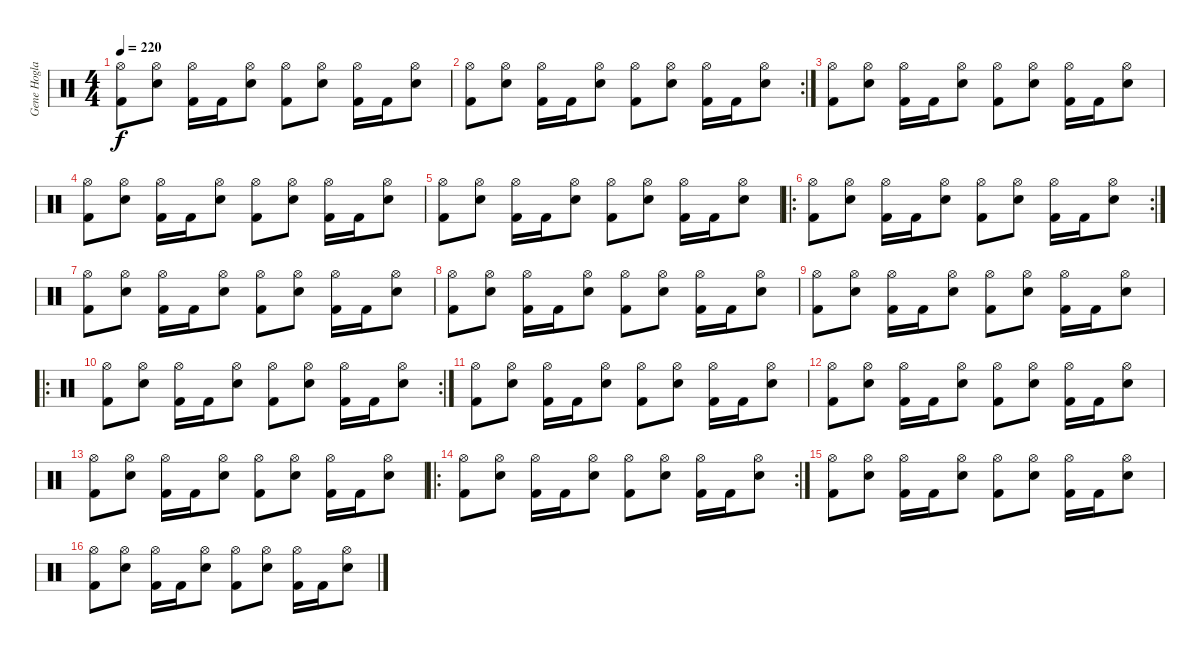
\track ("Gene Hoglan" "Gene Hogla") {instrument percussion}
\staff {score}
\articulation defaults
\ts (4 4)
\tempo 220
\clef neutral
\ks c
("Hi-Hat (open)" "Kick (hit) 2").8{dy f} ("Hi-Hat (open)" "Electric Snare (hit)").8 ("Hi-Hat (open)" "Kick (hit) 2").16 "Kick (hit) 2".16 ("Hi-Hat (open)" "Electric Snare (hit)").8 ("Hi-Hat (open)" "Kick (hit) 2").8 ("Hi-Hat (open)" "Electric Snare (hit)").8 ("Hi-Hat (open)" "Kick (hit) 2").16 "Kick (hit) 2".16 ("Hi-Hat (open)" "Electric Snare (hit)").8 |
\rc 2
("Hi-Hat (open)" "Kick (hit) 2").8 ("Hi-Hat (open)" "Electric Snare (hit)").8 ("Hi-Hat (open)" "Kick (hit) 2").16 "Kick (hit) 2".16 ("Hi-Hat (open)" "Electric Snare (hit)").8 ("Hi-Hat (open)" "Kick (hit) 2").8 ("Hi-Hat (open)" "Electric Snare (hit)").8 ("Hi-Hat (open)" "Kick (hit) 2").16 "Kick (hit) 2".16 ("Hi-Hat (open)" "Electric Snare (hit)").8 |
("Hi-Hat (open)" "Kick (hit) 2").8 ("Hi-Hat (open)" "Electric Snare (hit)").8 ("Hi-Hat (open)" "Kick (hit) 2").16 "Kick (hit) 2".16 ("Hi-Hat (open)" "Electric Snare (hit)").8 ("Hi-Hat (open)" "Kick (hit) 2").8 ("Hi-Hat (open)" "Electric Snare (hit)").8 ("Hi-Hat (open)" "Kick (hit) 2").16 "Kick (hit) 2".16 ("Hi-Hat (open)" "Electric Snare (hit)").8 |
("Hi-Hat (open)" "Kick (hit) 2").8 ("Hi-Hat (open)" "Electric Snare (hit)").8 ("Hi-Hat (open)" "Kick (hit) 2").16 "Kick (hit) 2".16 ("Hi-Hat (open)" "Electric Snare (hit)").8 ("Hi-Hat (open)" "Kick (hit) 2").8 ("Hi-Hat (open)" "Electric Snare (hit)").8 ("Hi-Hat (open)" "Kick (hit) 2").16 "Kick (hit) 2".16 ("Hi-Hat (open)" "Electric Snare (hit)").8 |
("Hi-Hat (open)" "Kick (hit) 2").8 ("Hi-Hat (open)" "Electric Snare (hit)").8 ("Hi-Hat (open)" "Kick (hit) 2").16 "Kick (hit) 2".16 ("Hi-Hat (open)" "Electric Snare (hit)").8 ("Hi-Hat (open)" "Kick (hit) 2").8 ("Hi-Hat (open)" "Electric Snare (hit)").8 ("Hi-Hat (open)" "Kick (hit) 2").16 "Kick (hit) 2".16 ("Hi-Hat (open)" "Electric Snare (hit)").8 |
\ro
\rc 2
("Hi-Hat (open)" "Kick (hit) 2").8 ("Hi-Hat (open)" "Electric Snare (hit)").8 ("Hi-Hat (open)" "Kick (hit) 2").16 "Kick (hit) 2".16 ("Hi-Hat (open)" "Electric Snare (hit)").8 ("Hi-Hat (open)" "Kick (hit) 2").8 ("Hi-Hat (open)" "Electric Snare (hit)").8 ("Hi-Hat (open)" "Kick (hit) 2").16 "Kick (hit) 2".16 ("Hi-Hat (open)" "Electric Snare (hit)").8 |
("Hi-Hat (open)" "Kick (hit) 2").8 ("Hi-Hat (open)" "Electric Snare (hit)").8 ("Hi-Hat (open)" "Kick (hit) 2").16 "Kick (hit) 2".16 ("Hi-Hat (open)" "Electric Snare (hit)").8 ("Hi-Hat (open)" "Kick (hit) 2").8 ("Hi-Hat (open)" "Electric Snare (hit)").8 ("Hi-Hat (open)" "Kick (hit) 2").16 "Kick (hit) 2".16 ("Hi-Hat (open)" "Electric Snare (hit)").8 |
("Hi-Hat (open)" "Kick (hit) 2").8 ("Hi-Hat (open)" "Electric Snare (hit)").8 ("Hi-Hat (open)" "Kick (hit) 2").16 "Kick (hit) 2".16 ("Hi-Hat (open)" "Electric Snare (hit)").8 ("Hi-Hat (open)" "Kick (hit) 2").8 ("Hi-Hat (open)" "Electric Snare (hit)").8 ("Hi-Hat (open)" "Kick (hit) 2").16 "Kick (hit) 2".16 ("Hi-Hat (open)" "Electric Snare (hit)").8 |
("Hi-Hat (open)" "Kick (hit) 2").8 ("Hi-Hat (open)" "Electric Snare (hit)").8 ("Hi-Hat (open)" "Kick (hit) 2").16 "Kick (hit) 2".16 ("Hi-Hat (open)" "Electric Snare (hit)").8 ("Hi-Hat (open)" "Kick (hit) 2").8 ("Hi-Hat (open)" "Electric Snare (hit)").8 ("Hi-Hat (open)" "Kick (hit) 2").16 "Kick (hit) 2".16 ("Hi-Hat (open)" "Electric Snare (hit)").8 |
\ro
\rc 2
("Hi-Hat (open)" "Kick (hit) 2").8 ("Hi-Hat (open)" "Electric Snare (hit)").8 ("Hi-Hat (open)" "Kick (hit) 2").16 "Kick (hit) 2".16 ("Hi-Hat (open)" "Electric Snare (hit)").8 ("Hi-Hat (open)" "Kick (hit) 2").8 ("Hi-Hat (open)" "Electric Snare (hit)").8 ("Hi-Hat (open)" "Kick (hit) 2").16 "Kick (hit) 2".16 ("Hi-Hat (open)" "Electric Snare (hit)").8 |
("Hi-Hat (open)" "Kick (hit) 2").8 ("Hi-Hat (open)" "Electric Snare (hit)").8 ("Hi-Hat (open)" "Kick (hit) 2").16 "Kick (hit) 2".16 ("Hi-Hat (open)" "Electric Snare (hit)").8 ("Hi-Hat (open)" "Kick (hit) 2").8 ("Hi-Hat (open)" "Electric Snare (hit)").8 ("Hi-Hat (open)" "Kick (hit) 2").16 "Kick (hit) 2".16 ("Hi-Hat (open)" "Electric Snare (hit)").8 |
("Hi-Hat (open)" "Kick (hit) 2").8 ("Hi-Hat (open)" "Electric Snare (hit)").8 ("Hi-Hat (open)" "Kick (hit) 2").16 "Kick (hit) 2".16 ("Hi-Hat (open)" "Electric Snare (hit)").8 ("Hi-Hat (open)" "Kick (hit) 2").8 ("Hi-Hat (open)" "Electric Snare (hit)").8 ("Hi-Hat (open)" "Kick (hit) 2").16 "Kick (hit) 2".16 ("Hi-Hat (open)" "Electric Snare (hit)").8 |
("Hi-Hat (open)" "Kick (hit) 2").8 ("Hi-Hat (open)" "Electric Snare (hit)").8 ("Hi-Hat (open)" "Kick (hit) 2").16 "Kick (hit) 2".16 ("Hi-Hat (open)" "Electric Snare (hit)").8 ("Hi-Hat (open)" "Kick (hit) 2").8 ("Hi-Hat (open)" "Electric Snare (hit)").8 ("Hi-Hat (open)" "Kick (hit) 2").16 "Kick (hit) 2".16 ("Hi-Hat (open)" "Electric Snare (hit)").8 |
\ro
\rc 2
("Hi-Hat (open)" "Kick (hit) 2").8 ("Hi-Hat (open)" "Electric Snare (hit)").8 ("Hi-Hat (open)" "Kick (hit) 2").16 "Kick (hit) 2".16 ("Hi-Hat (open)" "Electric Snare (hit)").8 ("Hi-Hat (open)" "Kick (hit) 2").8 ("Hi-Hat (open)" "Electric Snare (hit)").8 ("Hi-Hat (open)" "Kick (hit) 2").16 "Kick (hit) 2".16 ("Hi-Hat (open)" "Electric Snare (hit)").8 |
("Hi-Hat (open)" "Kick (hit) 2").8 ("Hi-Hat (open)" "Electric Snare (hit)").8 ("Hi-Hat (open)" "Kick (hit) 2").16 "Kick (hit) 2".16 ("Hi-Hat (open)" "Electric Snare (hit)").8 ("Hi-Hat (open)" "Kick (hit) 2").8 ("Hi-Hat (open)" "Electric Snare (hit)").8 ("Hi-Hat (open)" "Kick (hit) 2").16 "Kick (hit) 2".16 ("Hi-Hat (open)" "Electric Snare (hit)").8 |
("Hi-Hat (open)" "Kick (hit) 2").8 ("Hi-Hat (open)" "Electric Snare (hit)").8 ("Hi-Hat (open)" "Kick (hit) 2").16 "Kick (hit) 2".16 ("Hi-Hat (open)" "Electric Snare (hit)").8 ("Hi-Hat (open)" "Kick (hit) 2").8 ("Hi-Hat (open)" "Electric Snare (hit)").8 ("Hi-Hat (open)" "Kick (hit) 2").16 "Kick (hit) 2".16 ("Hi-Hat (open)" "Electric Snare (hit)").8
